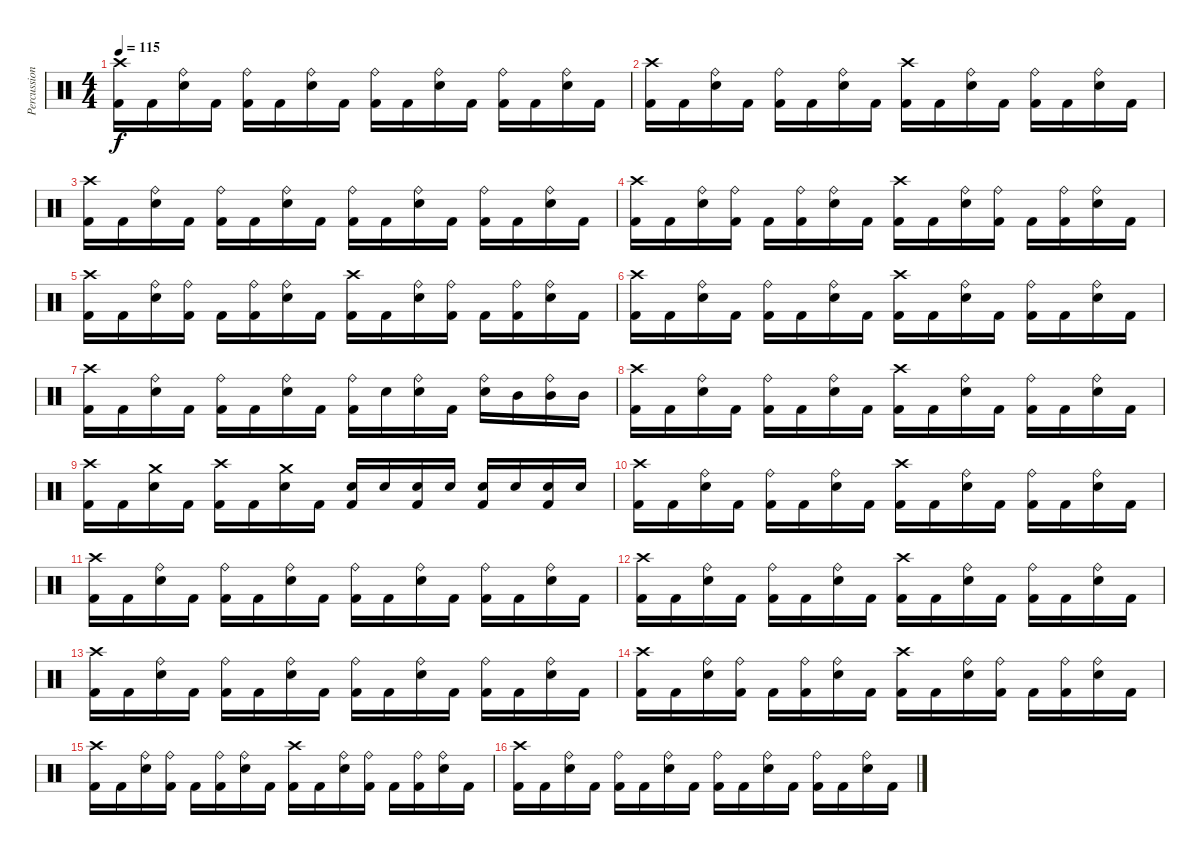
\track ("Percussion" "Percussion") {instrument percussion}
\staff {score}
\articulation defaults
\ts (4 4)
\tempo 115
\clef neutral
\ks c
("Kick (hit) 2" "Crash high (hit)").16{dy f} "Kick (hit) 2".16 ("Electric Snare (hit)" "Ride (bell)").16 "Kick (hit) 2".16 ("Kick (hit) 2" "Ride (bell)").16 "Kick (hit) 2".16 ("Electric Snare (hit)" "Ride (bell)").16 "Kick (hit) 2".16 ("Kick (hit) 2" "Ride (bell)").16 "Kick (hit) 2".16 ("Electric Snare (hit)" "Ride (bell)").16 "Kick (hit) 2".16 ("Kick (hit) 2" "Ride (bell)").16 "Kick (hit) 2".16 ("Electric Snare (hit)" "Ride (bell)").16 "Kick (hit) 2".16 |
("Kick (hit) 2" "Crash high (hit)").16 "Kick (hit) 2".16 ("Electric Snare (hit)" "Ride (bell)").16 "Kick (hit) 2".16 ("Kick (hit) 2" "Ride (bell)").16 "Kick (hit) 2".16 ("Electric Snare (hit)" "Ride (bell)").16 "Kick (hit) 2".16 ("Kick (hit) 2" "Crash high (hit)").16 "Kick (hit) 2".16 ("Electric Snare (hit)" "Ride (bell)").16 "Kick (hit) 2".16 ("Kick (hit) 2" "Ride (bell)").16 "Kick (hit) 2".16 ("Electric Snare (hit)" "Ride (bell)").16 "Kick (hit) 2".16 |
("Kick (hit) 2" "Crash high (hit)").16 "Kick (hit) 2".16 ("Electric Snare (hit)" "Ride (bell)").16 "Kick (hit) 2".16 ("Kick (hit) 2" "Ride (bell)").16 "Kick (hit) 2".16 ("Electric Snare (hit)" "Ride (bell)").16 "Kick (hit) 2".16 ("Kick (hit) 2" "Ride (bell)").16 "Kick (hit) 2".16 ("Electric Snare (hit)" "Ride (bell)").16 "Kick (hit) 2".16 ("Kick (hit) 2" "Ride (bell)").16 "Kick (hit) 2".16 ("Electric Snare (hit)" "Ride (bell)").16 "Kick (hit) 2".16 |
("Kick (hit) 2" "Crash high (hit)").16 "Kick (hit) 2".16 ("Electric Snare (hit)" "Ride (bell)").16 ("Kick (hit) 2" "Ride (bell)").16 "Kick (hit) 2".16 ("Kick (hit) 2" "Ride (bell)").16 ("Electric Snare (hit)" "Ride (bell)").16 "Kick (hit) 2".16 ("Kick (hit) 2" "Crash high (hit)").16 "Kick (hit) 2".16 ("Electric Snare (hit)" "Ride (bell)").16 ("Kick (hit) 2" "Ride (bell)").16 "Kick (hit) 2".16 ("Kick (hit) 2" "Ride (bell)").16 ("Electric Snare (hit)" "Ride (bell)").16 "Kick (hit) 2".16 |
("Kick (hit) 2" "Crash high (hit)").16 "Kick (hit) 2".16 ("Electric Snare (hit)" "Ride (bell)").16 ("Kick (hit) 2" "Ride (bell)").16 "Kick (hit) 2".16 ("Kick (hit) 2" "Ride (bell)").16 ("Electric Snare (hit)" "Ride (bell)").16 "Kick (hit) 2".16 ("Kick (hit) 2" "Crash high (hit)").16 "Kick (hit) 2".16 ("Electric Snare (hit)" "Ride (bell)").16 ("Kick (hit) 2" "Ride (bell)").16 "Kick (hit) 2".16 ("Kick (hit) 2" "Ride (bell)").16 ("Electric Snare (hit)" "Ride (bell)").16 "Kick (hit) 2".16 |
("Kick (hit) 2" "Crash high (hit)").16 "Kick (hit) 2".16 ("Electric Snare (hit)" "Ride (bell)").16 "Kick (hit) 2".16 ("Kick (hit) 2" "Ride (bell)").16 "Kick (hit) 2".16 ("Electric Snare (hit)" "Ride (bell)").16 "Kick (hit) 2".16 ("Kick (hit) 2" "Crash high (hit)").16 "Kick (hit) 2".16 ("Electric Snare (hit)" "Ride (bell)").16 "Kick (hit) 2".16 ("Kick (hit) 2" "Ride (bell)").16 "Kick (hit) 2".16 ("Electric Snare (hit)" "Ride (bell)").16 "Kick (hit) 2".16 |
("Kick (hit) 2" "Crash high (hit)").16 "Kick (hit) 2".16 ("Electric Snare (hit)" "Ride (bell)").16 "Kick (hit) 2".16 ("Kick (hit) 2" "Ride (bell)").16 "Kick (hit) 2".16 ("Electric Snare (hit)" "Ride (bell)").16 "Kick (hit) 2".16 ("Kick (hit) 2" "Ride (bell)").16 "Electric Snare (hit)".16 ("Electric Snare (hit)" "Ride (bell)").16 "Kick (hit) 2".16 ("Electric Snare (hit)" "Ride (bell)").16 "Mid Tom (hit)".16 ("Mid Tom (hit)" "Ride (bell)").16 "Mid Tom (hit)".16 |
("Kick (hit) 2" "Crash high (hit)").16 "Kick (hit) 2".16 ("Electric Snare (hit)" "Ride (bell)").16 "Kick (hit) 2".16 ("Kick (hit) 2" "Ride (bell)").16 "Kick (hit) 2".16 ("Electric Snare (hit)" "Ride (bell)").16 "Kick (hit) 2".16 ("Kick (hit) 2" "Crash high (hit)").16 "Kick (hit) 2".16 ("Electric Snare (hit)" "Ride (bell)").16 "Kick (hit) 2".16 ("Kick (hit) 2" "Ride (bell)").16 "Kick (hit) 2".16 ("Electric Snare (hit)" "Ride (bell)").16 "Kick (hit) 2".16 |
("Kick (hit) 2" "Crash high (hit)").16 "Kick (hit) 2".16 ("Electric Snare (hit)" "Crash medium (hit)").16 "Kick (hit) 2".16 ("Kick (hit) 2" "Crash high (hit)").16 "Kick (hit) 2".16 ("Electric Snare (hit)" "Crash medium (hit)").16 "Kick (hit) 2".16 ("Electric Snare (hit)" "Kick (hit) 2").16 "Electric Snare (hit)".16 ("Electric Snare (hit)" "Kick (hit) 2").16 "Electric Snare (hit)".16 ("Electric Snare (hit)" "Kick (hit) 2").16 "Electric Snare (hit)".16 ("Electric Snare (hit)" "Kick (hit) 2").16 "Electric Snare (hit)".16 |
("Kick (hit) 2" "Crash high (hit)").16 "Kick (hit) 2".16 ("Electric Snare (hit)" "Ride (bell)").16 "Kick (hit) 2".16 ("Kick (hit) 2" "Ride (bell)").16 "Kick (hit) 2".16 ("Electric Snare (hit)" "Ride (bell)").16 "Kick (hit) 2".16 ("Kick (hit) 2" "Crash high (hit)").16 "Kick (hit) 2".16 ("Electric Snare (hit)" "Ride (bell)").16 "Kick (hit) 2".16 ("Kick (hit) 2" "Ride (bell)").16 "Kick (hit) 2".16 ("Electric Snare (hit)" "Ride (bell)").16 "Kick (hit) 2".16 |
("Kick (hit) 2" "Crash high (hit)").16 "Kick (hit) 2".16 ("Electric Snare (hit)" "Ride (bell)").16 "Kick (hit) 2".16 ("Kick (hit) 2" "Ride (bell)").16 "Kick (hit) 2".16 ("Electric Snare (hit)" "Ride (bell)").16 "Kick (hit) 2".16 ("Kick (hit) 2" "Ride (bell)").16 "Kick (hit) 2".16 ("Electric Snare (hit)" "Ride (bell)").16 "Kick (hit) 2".16 ("Kick (hit) 2" "Ride (bell)").16 "Kick (hit) 2".16 ("Electric Snare (hit)" "Ride (bell)").16 "Kick (hit) 2".16 |
("Kick (hit) 2" "Crash high (hit)").16 "Kick (hit) 2".16 ("Electric Snare (hit)" "Ride (bell)").16 "Kick (hit) 2".16 ("Kick (hit) 2" "Ride (bell)").16 "Kick (hit) 2".16 ("Electric Snare (hit)" "Ride (bell)").16 "Kick (hit) 2".16 ("Kick (hit) 2" "Crash high (hit)").16 "Kick (hit) 2".16 ("Electric Snare (hit)" "Ride (bell)").16 "Kick (hit) 2".16 ("Kick (hit) 2" "Ride (bell)").16 "Kick (hit) 2".16 ("Electric Snare (hit)" "Ride (bell)").16 "Kick (hit) 2".16 |
("Kick (hit) 2" "Crash high (hit)").16 "Kick (hit) 2".16 ("Electric Snare (hit)" "Ride (bell)").16 "Kick (hit) 2".16 ("Kick (hit) 2" "Ride (bell)").16 "Kick (hit) 2".16 ("Electric Snare (hit)" "Ride (bell)").16 "Kick (hit) 2".16 ("Kick (hit) 2" "Ride (bell)").16 "Kick (hit) 2".16 ("Electric Snare (hit)" "Ride (bell)").16 "Kick (hit) 2".16 ("Kick (hit) 2" "Ride (bell)").16 "Kick (hit) 2".16 ("Electric Snare (hit)" "Ride (bell)").16 "Kick (hit) 2".16 |
("Kick (hit) 2" "Crash high (hit)").16 "Kick (hit) 2".16 ("Electric Snare (hit)" "Ride (bell)").16 ("Kick (hit) 2" "Ride (bell)").16 "Kick (hit) 2".16 ("Kick (hit) 2" "Ride (bell)").16 ("Electric Snare (hit)" "Ride (bell)").16 "Kick (hit) 2".16 ("Kick (hit) 2" "Crash high (hit)").16 "Kick (hit) 2".16 ("Electric Snare (hit)" "Ride (bell)").16 ("Kick (hit) 2" "Ride (bell)").16 "Kick (hit) 2".16 ("Kick (hit) 2" "Ride (bell)").16 ("Electric Snare (hit)" "Ride (bell)").16 "Kick (hit) 2".16 |
("Kick (hit) 2" "Crash high (hit)").16 "Kick (hit) 2".16 ("Electric Snare (hit)" "Ride (bell)").16 ("Kick (hit) 2" "Ride (bell)").16 "Kick (hit) 2".16 ("Kick (hit) 2" "Ride (bell)").16 ("Electric Snare (hit)" "Ride (bell)").16 "Kick (hit) 2".16 ("Kick (hit) 2" "Crash high (hit)").16 "Kick (hit) 2".16 ("Electric Snare (hit)" "Ride (bell)").16 ("Kick (hit) 2" "Ride (bell)").16 "Kick (hit) 2".16 ("Kick (hit) 2" "Ride (bell)").16 ("Electric Snare (hit)" "Ride (bell)").16 "Kick (hit) 2".16 |
("Kick (hit) 2" "Crash high (hit)").16 "Kick (hit) 2".16 ("Electric Snare (hit)" "Ride (bell)").16 "Kick (hit) 2".16 ("Kick (hit) 2" "Ride (bell)").16 "Kick (hit) 2".16 ("Electric Snare (hit)" "Ride (bell)").16 "Kick (hit) 2".16 ("Kick (hit) 2" "Ride (bell)").16 "Kick (hit) 2".16 ("Electric Snare (hit)" "Ride (bell)").16 "Kick (hit) 2".16 ("Kick (hit) 2" "Ride (bell)").16 "Kick (hit) 2".16 ("Electric Snare (hit)" "Ride (bell)").16 "Kick (hit) 2".16
